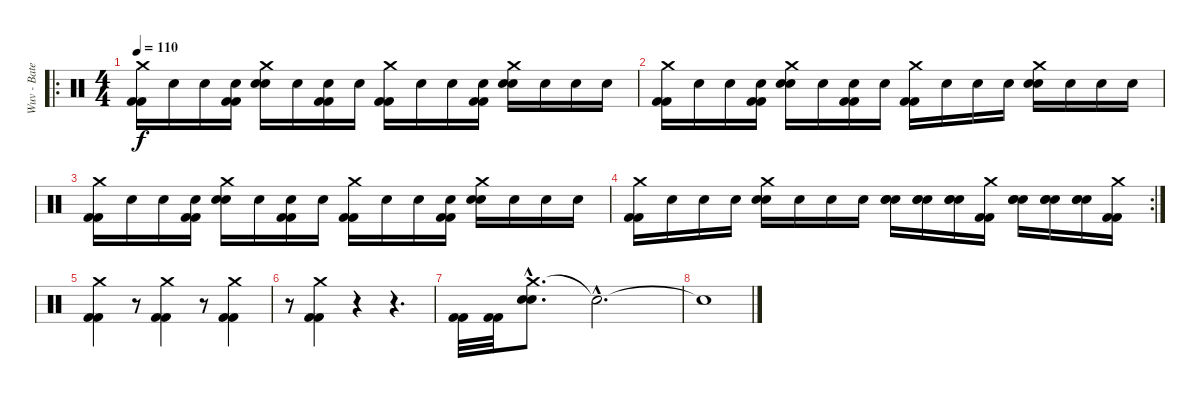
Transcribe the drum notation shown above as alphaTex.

\track ("Wuv - Bateria" "Wuv - Bate") {instrument percussion}
\staff {score}
\articulation defaults
\ro
\ts (4 4)
\tempo 110
\clef neutral
\ks c
("Crash medium (hit)" "Kick (hit) 2" "Kick (hit) 2").16{dy f} "Snare (hit)".16 "Snare (hit)".16 ("Snare (hit)" "Kick (hit) 2" "Kick (hit) 2").16 ("Crash medium (hit)" "Electric Snare (hit)" "Electric Snare (hit)").16 "Snare (hit)".16 ("Snare (hit)" "Kick (hit) 2" "Kick (hit) 2").16 "Snare (hit)".16 ("Crash medium (hit)" "Kick (hit) 2" "Kick (hit) 2").16 "Snare (hit)".16 "Snare (hit)".16 ("Snare (hit)" "Kick (hit) 2" "Kick (hit) 2").16 ("Crash medium (hit)" "Electric Snare (hit)" "Electric Snare (hit)").16 "Snare (hit)".16 "Snare (hit)".16 "Snare (hit)".16 |
("Crash medium (hit)" "Kick (hit) 2" "Kick (hit) 2").16 "Snare (hit)".16 "Snare (hit)".16 ("Snare (hit)" "Kick (hit) 2" "Kick (hit) 2").16 ("Crash medium (hit)" "Electric Snare (hit)" "Electric Snare (hit)").16 "Snare (hit)".16 ("Snare (hit)" "Kick (hit) 2" "Kick (hit) 2").16 "Snare (hit)".16 ("Crash medium (hit)" "Kick (hit) 2" "Kick (hit) 2").16 "Snare (hit)".16 "Snare (hit)".16 "Snare (hit)".16 ("Crash medium (hit)" "Electric Snare (hit)" "Electric Snare (hit)").16 "Snare (hit)".16 "Snare (hit)".16 "Snare (hit)".16 |
("Crash medium (hit)" "Kick (hit) 2" "Kick (hit) 2").16 "Snare (hit)".16 "Snare (hit)".16 ("Snare (hit)" "Kick (hit) 2" "Kick (hit) 2").16 ("Crash medium (hit)" "Electric Snare (hit)" "Electric Snare (hit)").16 "Snare (hit)".16 ("Snare (hit)" "Kick (hit) 2" "Kick (hit) 2").16 "Snare (hit)".16 ("Crash medium (hit)" "Kick (hit) 2" "Kick (hit) 2").16 "Snare (hit)".16 "Snare (hit)".16 ("Snare (hit)" "Kick (hit) 2" "Kick (hit) 2").16 ("Crash medium (hit)" "Electric Snare (hit)" "Electric Snare (hit)").16 "Snare (hit)".16 "Snare (hit)".16 "Snare (hit)".16 |
\rc 2
("Crash medium (hit)" "Kick (hit) 2" "Kick (hit) 2").16 "Snare (hit)".16 "Snare (hit)".16 "Snare (hit)".16 ("Crash medium (hit)" "Electric Snare (hit)" "Electric Snare (hit)").16 "Snare (hit)".16 "Snare (hit)".16 "Snare (hit)".16 ("Snare (hit)" "Electric Snare (hit)" "Electric Snare (hit)").16 ("Snare (hit)" "Electric Snare (hit)" "Electric Snare (hit)").16 ("Snare (hit)" "Electric Snare (hit)" "Electric Snare (hit)").16 ("Crash medium (hit)" "Kick (hit) 2" "Kick (hit) 2").16 ("Snare (hit)" "Electric Snare (hit)" "Electric Snare (hit)").16 ("Snare (hit)" "Electric Snare (hit)" "Electric Snare (hit)").16 ("Snare (hit)" "Electric Snare (hit)" "Electric Snare (hit)").16 ("Crash medium (hit)" "Kick (hit) 2" "Kick (hit) 2").16 |
("Crash medium (hit)" "Kick (hit) 2" "Kick (hit) 2").4 r.8 ("Crash medium (hit)" "Kick (hit) 2" "Kick (hit) 2").4 r.8 ("Crash medium (hit)" "Kick (hit) 2" "Kick (hit) 2").4 |
r.8 ("Crash medium (hit)" "Kick (hit) 2" "Kick (hit) 2").4 r.4 r.4{d} |
("Kick (hit) 2" "Kick (hit) 2").32 ("Kick (hit) 2" "Kick (hit) 2").32 ("Crash medium (hit)"{hac} "Electric Snare (hit)"{hac} "Electric Snare (hit)"{hac}).8{d} "Snare (hit)"{hac t}.2{d} |
"Snare (hit)"{t}.1
